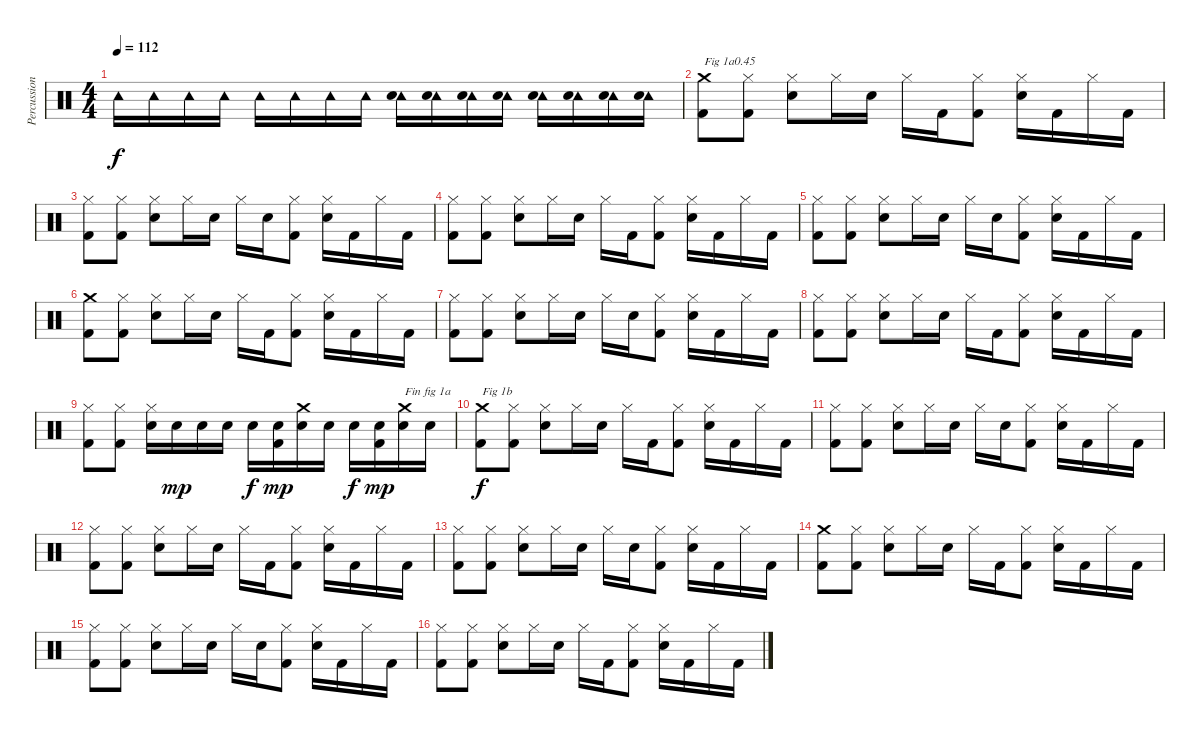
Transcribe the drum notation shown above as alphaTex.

\track ("Percussions" "Percussion") {instrument percussion}
\staff {score}
\articulation defaults
\ts (4 4)
\tempo 112
\clef neutral
\ks c "Tambourine (hit)".16{dy f} "Tambourine (hit)".16 "Tambourine (hit)".16 "Tambourine (hit)".16 "Tambourine (hit)".16 "Tambourine (hit)".16 "Tambourine (hit)".16 "Tambourine (hit)".16
("Tambourine (hit)" "Snare (hit) 2").16 ("Tambourine (hit)" "Snare (hit) 2").16 ("Tambourine (hit)" "Snare (hit) 2").16 ("Tambourine (hit)" "Snare (hit) 2").16 ("Tambourine (hit)" "Snare (hit) 2").16 ("Tambourine (hit)" "Snare (hit) 2").16 ("Tambourine (hit)" "Snare (hit) 2").16 ("Tambourine (hit)" "Snare (hit) 2").16 |
("Kick (hit) 2" "Crash medium (hit)").8{txt "Fig 1a0.45"} ("Kick (hit) 2" "Hi-Hat (closed)").8 ("Snare (hit) 2" "Hi-Hat (closed)").8 "Hi-Hat (closed)".16 "Snare (hit) 2".16 "Hi-Hat (closed)".16 "Kick (hit) 2".16 ("Kick (hit) 2" "Hi-Hat (closed)").8 ("Snare (hit) 2" "Hi-Hat (closed)").16 "Kick (hit) 2".16 "Hi-Hat (closed)".16 "Kick (hit) 2".16 |
("Kick (hit) 2" "Hi-Hat (closed)").8 ("Kick (hit) 2" "Hi-Hat (closed)").8 ("Snare (hit) 2" "Hi-Hat (closed)").8 "Hi-Hat (closed)".16 "Snare (hit) 2".16 "Hi-Hat (closed)".16 "Snare (hit) 2".16 ("Kick (hit) 2" "Hi-Hat (closed)").8 ("Snare (hit) 2" "Hi-Hat (closed)").16 "Kick (hit) 2".16 "Hi-Hat (closed)".16 "Kick (hit) 2".16 |
("Kick (hit) 2" "Hi-Hat (closed)").8 ("Kick (hit) 2" "Hi-Hat (closed)").8 ("Snare (hit) 2" "Hi-Hat (closed)").8 "Hi-Hat (closed)".16 "Snare (hit) 2".16 "Hi-Hat (closed)".16 "Kick (hit) 2".16 ("Kick (hit) 2" "Hi-Hat (closed)").8 ("Snare (hit) 2" "Hi-Hat (closed)").16 "Kick (hit) 2".16 "Hi-Hat (closed)".16 "Kick (hit) 2".16 |
("Kick (hit) 2" "Hi-Hat (closed)").8 ("Kick (hit) 2" "Hi-Hat (closed)").8 ("Snare (hit) 2" "Hi-Hat (closed)").8 "Hi-Hat (closed)".16 "Snare (hit) 2".16 "Hi-Hat (closed)".16 "Snare (hit) 2".16 ("Kick (hit) 2" "Hi-Hat (closed)").8 ("Snare (hit) 2" "Hi-Hat (closed)").16 "Kick (hit) 2".16 "Hi-Hat (closed)".16 "Kick (hit) 2".16 |
("Kick (hit) 2" "Crash medium (hit)").8 ("Kick (hit) 2" "Hi-Hat (closed)").8 ("Snare (hit) 2" "Hi-Hat (closed)").8 "Hi-Hat (closed)".16 "Snare (hit) 2".16 "Hi-Hat (closed)".16 "Kick (hit) 2".16 ("Kick (hit) 2" "Hi-Hat (closed)").8 ("Snare (hit) 2" "Hi-Hat (closed)").16 "Kick (hit) 2".16 "Hi-Hat (closed)".16 "Kick (hit) 2".16 |
("Kick (hit) 2" "Hi-Hat (closed)").8 ("Kick (hit) 2" "Hi-Hat (closed)").8 ("Snare (hit) 2" "Hi-Hat (closed)").8 "Hi-Hat (closed)".16 "Snare (hit) 2".16 "Hi-Hat (closed)".16 "Snare (hit) 2".16 ("Kick (hit) 2" "Hi-Hat (closed)").8 ("Snare (hit) 2" "Hi-Hat (closed)").16 "Kick (hit) 2".16 "Hi-Hat (closed)".16 "Kick (hit) 2".16 |
("Kick (hit) 2" "Hi-Hat (closed)").8 ("Kick (hit) 2" "Hi-Hat (closed)").8 ("Snare (hit) 2" "Hi-Hat (closed)").8 "Hi-Hat (closed)".16 "Snare (hit) 2".16 "Hi-Hat (closed)".16 "Kick (hit) 2".16 ("Kick (hit) 2" "Hi-Hat (closed)").8 ("Snare (hit) 2" "Hi-Hat (closed)").16 "Kick (hit) 2".16 "Hi-Hat (closed)".16 "Kick (hit) 2".16 |
("Kick (hit) 2" "Hi-Hat (closed)").8 ("Kick (hit) 2" "Hi-Hat (closed)").8 ("Snare (hit) 2" "Hi-Hat (closed)").16 "Snare (hit) 2".16{dy mp} "Snare (hit) 2".16 "Snare (hit) 2".16 "Snare (hit) 2".16{dy f} ("Kick (hit) 2" "Snare (hit) 2").16{dy mp} ("Snare (hit) 2" "Crash medium (hit)").16 "Snare (hit) 2".16 "Snare (hit) 2".16{dy f} ("Kick (hit) 2" "Snare (hit) 2").16{dy mp} ("Snare (hit) 2" "Crash medium (hit)").16{txt "Fin fig 1a"} "Snare (hit) 2".16 |
("Kick (hit) 2" "Crash medium (hit)").8{txt "Fig 1b" dy f} ("Kick (hit) 2" "Hi-Hat (closed)").8 ("Snare (hit) 2" "Hi-Hat (closed)").8 "Hi-Hat (closed)".16 "Snare (hit) 2".16 "Hi-Hat (closed)".16 "Kick (hit) 2".16 ("Kick (hit) 2" "Hi-Hat (closed)").8 ("Snare (hit) 2" "Hi-Hat (closed)").16 "Kick (hit) 2".16 "Hi-Hat (closed)".16 "Kick (hit) 2".16 |
("Kick (hit) 2" "Hi-Hat (closed)").8 ("Kick (hit) 2" "Hi-Hat (closed)").8 ("Snare (hit) 2" "Hi-Hat (closed)").8 "Hi-Hat (closed)".16 "Snare (hit) 2".16 "Hi-Hat (closed)".16 "Snare (hit) 2".16 ("Kick (hit) 2" "Hi-Hat (closed)").8 ("Snare (hit) 2" "Hi-Hat (closed)").16 "Kick (hit) 2".16 "Hi-Hat (closed)".16 "Kick (hit) 2".16 |
("Kick (hit) 2" "Hi-Hat (closed)").8 ("Kick (hit) 2" "Hi-Hat (closed)").8 ("Snare (hit) 2" "Hi-Hat (closed)").8 "Hi-Hat (closed)".16 "Snare (hit) 2".16 "Hi-Hat (closed)".16 "Kick (hit) 2".16 ("Kick (hit) 2" "Hi-Hat (closed)").8 ("Snare (hit) 2" "Hi-Hat (closed)").16 "Kick (hit) 2".16 "Hi-Hat (closed)".16 "Kick (hit) 2".16 |
("Kick (hit) 2" "Hi-Hat (closed)").8 ("Kick (hit) 2" "Hi-Hat (closed)").8 ("Snare (hit) 2" "Hi-Hat (closed)").8 "Hi-Hat (closed)".16 "Snare (hit) 2".16 "Hi-Hat (closed)".16 "Snare (hit) 2".16 ("Kick (hit) 2" "Hi-Hat (closed)").8 ("Snare (hit) 2" "Hi-Hat (closed)").16 "Kick (hit) 2".16 "Hi-Hat (closed)".16 "Kick (hit) 2".16 |
("Kick (hit) 2" "Crash medium (hit)").8 ("Kick (hit) 2" "Hi-Hat (closed)").8 ("Snare (hit) 2" "Hi-Hat (closed)").8 "Hi-Hat (closed)".16 "Snare (hit) 2".16 "Hi-Hat (closed)".16 "Kick (hit) 2".16 ("Kick (hit) 2" "Hi-Hat (closed)").8 ("Snare (hit) 2" "Hi-Hat (closed)").16 "Kick (hit) 2".16 "Hi-Hat (closed)".16 "Kick (hit) 2".16 |
("Kick (hit) 2" "Hi-Hat (closed)").8 ("Kick (hit) 2" "Hi-Hat (closed)").8 ("Snare (hit) 2" "Hi-Hat (closed)").8 "Hi-Hat (closed)".16 "Snare (hit) 2".16 "Hi-Hat (closed)".16 "Snare (hit) 2".16 ("Kick (hit) 2" "Hi-Hat (closed)").8 ("Snare (hit) 2" "Hi-Hat (closed)").16 "Kick (hit) 2".16 "Hi-Hat (closed)".16 "Kick (hit) 2".16 |
("Kick (hit) 2" "Hi-Hat (closed)").8 ("Kick (hit) 2" "Hi-Hat (closed)").8 ("Snare (hit) 2" "Hi-Hat (closed)").8 "Hi-Hat (closed)".16 "Snare (hit) 2".16 "Hi-Hat (closed)".16 "Kick (hit) 2".16 ("Kick (hit) 2" "Hi-Hat (closed)").8 ("Snare (hit) 2" "Hi-Hat (closed)").16 "Kick (hit) 2".16 "Hi-Hat (closed)".16 "Kick (hit) 2".16
